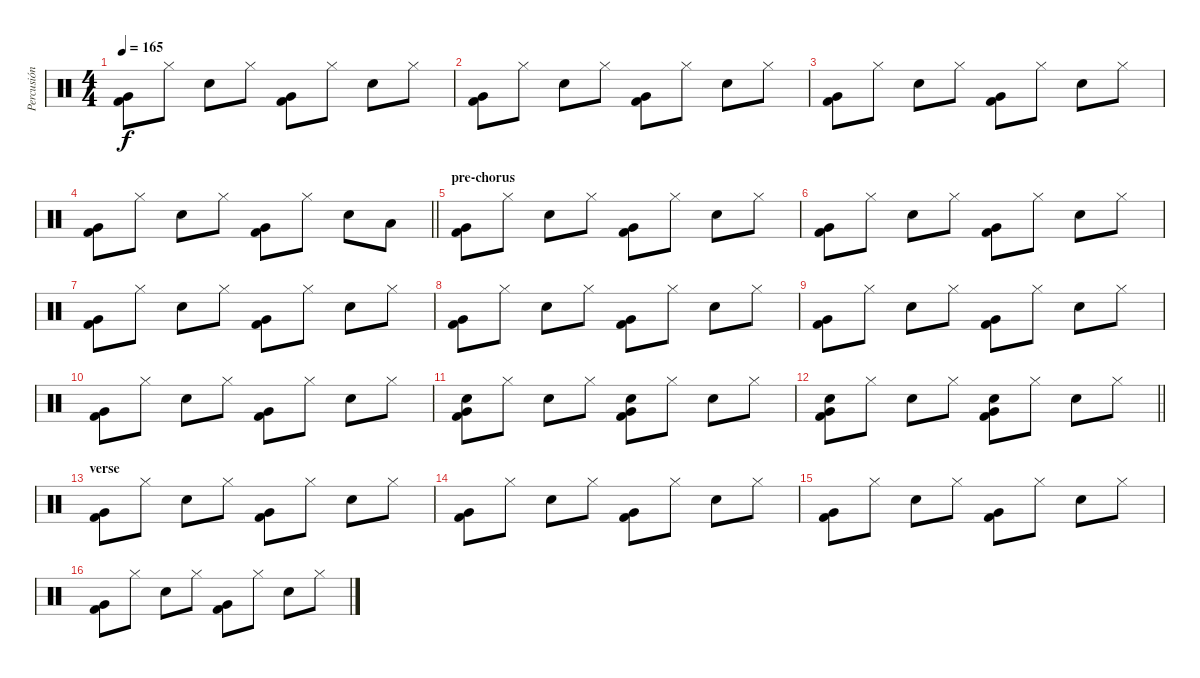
\track ("Percusión" "Percusión") {instrument percussion}
\staff {score}
\articulation defaults
\ts (4 4)
\tempo 165
\clef neutral
\ks c
("Kick (hit) 2" "Very Low Tom (hit)").8{dy f} "Hi-Hat (closed)".8 "Electric Snare (hit)".8 "Hi-Hat (closed)".8 ("Kick (hit) 2" "Very Low Tom (hit)").8 "Hi-Hat (closed)".8 "Electric Snare (hit)".8 "Hi-Hat (closed)".8 |
("Kick (hit) 2" "Very Low Tom (hit)").8 "Hi-Hat (closed)".8 "Electric Snare (hit)".8 "Hi-Hat (closed)".8 ("Kick (hit) 2" "Very Low Tom (hit)").8 "Hi-Hat (closed)".8 "Electric Snare (hit)".8 "Hi-Hat (closed)".8 |
("Kick (hit) 2" "Very Low Tom (hit)").8 "Hi-Hat (closed)".8 "Electric Snare (hit)".8 "Hi-Hat (closed)".8 ("Kick (hit) 2" "Very Low Tom (hit)").8 "Hi-Hat (closed)".8 "Electric Snare (hit)".8 "Hi-Hat (closed)".8 |
\barLineRight lightlight
("Kick (hit) 2" "Very Low Tom (hit)").8 "Hi-Hat (closed)".8 "Electric Snare (hit)".8 "Hi-Hat (closed)".8 ("Kick (hit) 2" "Very Low Tom (hit)").8 "Hi-Hat (closed)".8 "Electric Snare (hit)".8 "Low Tom (hit)".8 |
\section ("" "pre-chorus")
("Kick (hit) 2" "Very Low Tom (hit)").8 "Hi-Hat (closed)".8 "Electric Snare (hit)".8 "Hi-Hat (closed)".8 ("Kick (hit) 2" "Very Low Tom (hit)").8 "Hi-Hat (closed)".8 "Electric Snare (hit)".8 "Hi-Hat (closed)".8 |
("Kick (hit) 2" "Very Low Tom (hit)").8 "Hi-Hat (closed)".8 "Electric Snare (hit)".8 "Hi-Hat (closed)".8 ("Kick (hit) 2" "Very Low Tom (hit)").8 "Hi-Hat (closed)".8 "Electric Snare (hit)".8 "Hi-Hat (closed)".8 |
("Kick (hit) 2" "Very Low Tom (hit)").8 "Hi-Hat (closed)".8 "Electric Snare (hit)".8 "Hi-Hat (closed)".8 ("Kick (hit) 2" "Very Low Tom (hit)").8 "Hi-Hat (closed)".8 "Electric Snare (hit)".8 "Hi-Hat (closed)".8 |
("Kick (hit) 2" "Very Low Tom (hit)").8 "Hi-Hat (closed)".8 "Electric Snare (hit)".8 "Hi-Hat (closed)".8 ("Kick (hit) 2" "Very Low Tom (hit)").8 "Hi-Hat (closed)".8 "Electric Snare (hit)".8 "Hi-Hat (closed)".8 |
("Kick (hit) 2" "Very Low Tom (hit)").8 "Hi-Hat (closed)".8 "Electric Snare (hit)".8 "Hi-Hat (closed)".8 ("Kick (hit) 2" "Very Low Tom (hit)").8 "Hi-Hat (closed)".8 "Electric Snare (hit)".8 "Hi-Hat (closed)".8 |
("Kick (hit) 2" "Very Low Tom (hit)").8 "Hi-Hat (closed)".8 "Electric Snare (hit)".8 "Hi-Hat (closed)".8 ("Kick (hit) 2" "Very Low Tom (hit)").8 "Hi-Hat (closed)".8 "Electric Snare (hit)".8 "Hi-Hat (closed)".8 |
("Electric Snare (hit)" "Kick (hit) 2" "Very Low Tom (hit)").8 "Hi-Hat (closed)".8 "Electric Snare (hit)".8 "Hi-Hat (closed)".8 ("Electric Snare (hit)" "Kick (hit) 2" "Very Low Tom (hit)").8 "Hi-Hat (closed)".8 "Electric Snare (hit)".8 "Hi-Hat (closed)".8 |
\barLineRight lightlight
("Electric Snare (hit)" "Kick (hit) 2" "Very Low Tom (hit)").8 "Hi-Hat (closed)".8 "Electric Snare (hit)".8 "Hi-Hat (closed)".8 ("Electric Snare (hit)" "Kick (hit) 2" "Very Low Tom (hit)").8 "Hi-Hat (closed)".8 "Electric Snare (hit)".8 "Hi-Hat (closed)".8 |
\section ("" "verse")
("Kick (hit) 2" "Very Low Tom (hit)").8 "Hi-Hat (closed)".8 "Electric Snare (hit)".8 "Hi-Hat (closed)".8 ("Kick (hit) 2" "Very Low Tom (hit)").8 "Hi-Hat (closed)".8 "Electric Snare (hit)".8 "Hi-Hat (closed)".8 |
("Kick (hit) 2" "Very Low Tom (hit)").8 "Hi-Hat (closed)".8 "Electric Snare (hit)".8 "Hi-Hat (closed)".8 ("Kick (hit) 2" "Very Low Tom (hit)").8 "Hi-Hat (closed)".8 "Electric Snare (hit)".8 "Hi-Hat (closed)".8 |
("Kick (hit) 2" "Very Low Tom (hit)").8 "Hi-Hat (closed)".8 "Electric Snare (hit)".8 "Hi-Hat (closed)".8 ("Kick (hit) 2" "Very Low Tom (hit)").8 "Hi-Hat (closed)".8 "Electric Snare (hit)".8 "Hi-Hat (closed)".8 |
("Kick (hit) 2" "Very Low Tom (hit)").8 "Hi-Hat (closed)".8 "Electric Snare (hit)".8 "Hi-Hat (closed)".8 ("Kick (hit) 2" "Very Low Tom (hit)").8 "Hi-Hat (closed)".8 "Electric Snare (hit)".8 "Hi-Hat (closed)".8
